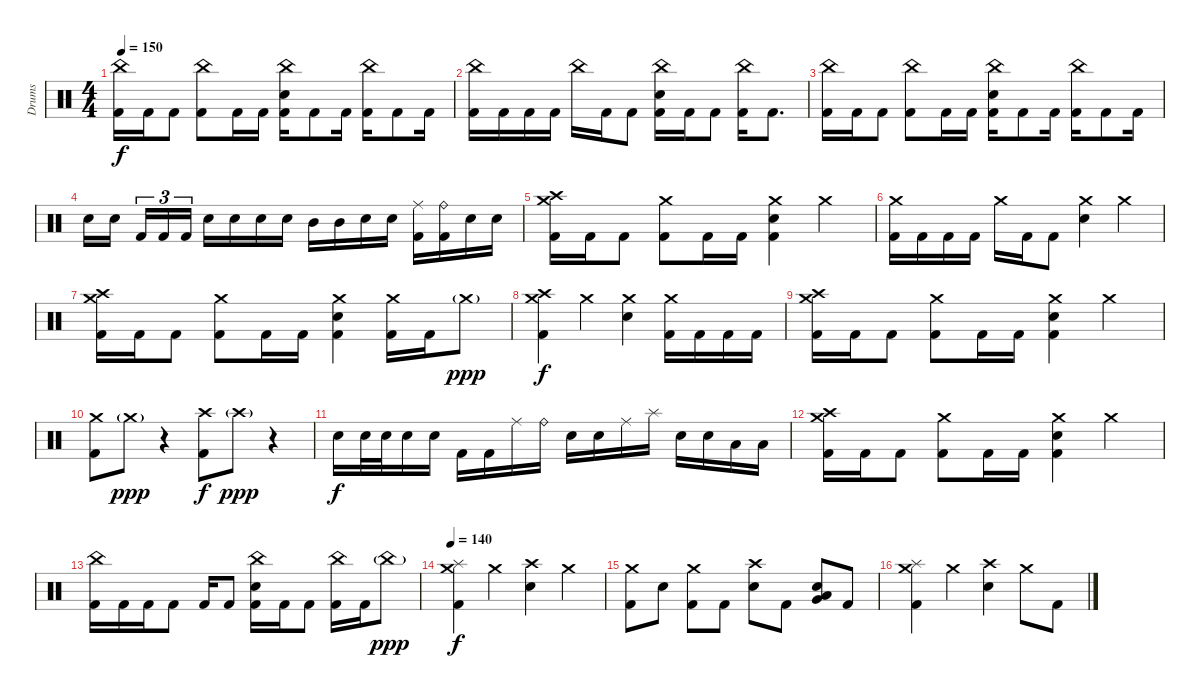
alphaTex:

\track ("Drums" "Drums") {instrument percussion}
\staff {score}
\articulation defaults
\ts (4 4)
\tempo 150
\clef neutral
\ks c
("China (hit)" "Kick (hit) 2").16{dy f} "Kick (hit) 2".16 "Kick (hit) 2".8 ("China (hit)" "Kick (hit) 2").8 "Kick (hit) 2".16 "Kick (hit) 2".16 ("China (hit)" "Electric Snare (hit)" "Kick (hit) 2").16 "Kick (hit) 2".8 "Kick (hit) 2".16 ("China (hit)" "Kick (hit) 2").16 "Kick (hit) 2".8 "Kick (hit) 2".16 |
("China (hit)" "Kick (hit) 2").16 "Kick (hit) 2".16 "Kick (hit) 2".16 "Kick (hit) 2".16 "China (hit)".16 "Kick (hit) 2".16 "Kick (hit) 2".8 ("China (hit)" "Electric Snare (hit)" "Kick (hit) 2").16 "Kick (hit) 2".16 "Kick (hit) 2".8 ("China (hit)" "Kick (hit) 2").16 "Kick (hit) 2".8{d} |
("China (hit)" "Kick (hit) 2").16 "Kick (hit) 2".16 "Kick (hit) 2".8 ("China (hit)" "Kick (hit) 2").8 "Kick (hit) 2".16 "Kick (hit) 2".16 ("China (hit)" "Electric Snare (hit)" "Kick (hit) 2").16 "Kick (hit) 2".8 "Kick (hit) 2".16 ("China (hit)" "Kick (hit) 2").16 "Kick (hit) 2".8 "Kick (hit) 2".16 |
"Electric Snare (hit)".16 "Electric Snare (hit)".16{beam splitsecondary} "Kick (hit) 2".16{tu (3 2)} "Kick (hit) 2".16{tu (3 2)} "Kick (hit) 2".16{tu (3 2)} "Electric Snare (hit)".16 "Electric Snare (hit)".16 "Electric Snare (hit)".16 "Electric Snare (hit)".16 "Mid Tom (hit)".16 "Mid Tom (hit)".16 "Electric Snare (hit)".16 "Electric Snare (hit)".16 ("Ride (middle)" "Kick (hit) 2").16 ("Ride (bell)" "Kick (hit) 2").16 "Electric Snare (hit)".16 "Electric Snare (hit)".16 |
("Crash medium (hit)" "Crash high (hit)" "Kick (hit) 2").16 "Kick (hit) 2".16 "Kick (hit) 2".8 ("Crash medium (hit)" "Kick (hit) 2").8 "Kick (hit) 2".16 "Kick (hit) 2".16 ("Crash medium (hit)" "Electric Snare (hit)" "Kick (hit) 2").4 "Crash medium (hit)".4 |
("Crash medium (hit)" "Kick (hit) 2").16 "Kick (hit) 2".16 "Kick (hit) 2".16 "Kick (hit) 2".16 "Crash medium (hit)".16 "Kick (hit) 2".16 "Kick (hit) 2".8 ("Crash medium (hit)" "Electric Snare (hit)").4 "Crash medium (hit)".4 |
("Crash medium (hit)" "Crash high (hit)" "Kick (hit) 2").16 "Kick (hit) 2".16 "Kick (hit) 2".8 ("Crash medium (hit)" "Kick (hit) 2").8 "Kick (hit) 2".16 "Kick (hit) 2".16 ("Crash medium (hit)" "Electric Snare (hit)" "Kick (hit) 2").4 ("Crash medium (hit)" "Kick (hit) 2").16 "Kick (hit) 2".16 "Crash medium (hit)"{g}.8{dy ppp} |
("Crash medium (hit)" "Crash high (hit)" "Kick (hit) 2").4{dy f} "Crash medium (hit)".4 ("Crash medium (hit)" "Electric Snare (hit)").4 ("Crash medium (hit)" "Kick (hit) 2").16 "Kick (hit) 2".16 "Kick (hit) 2".16 "Kick (hit) 2".16 |
("Crash medium (hit)" "Crash high (hit)" "Kick (hit) 2").16 "Kick (hit) 2".16 "Kick (hit) 2".8 ("Crash medium (hit)" "Kick (hit) 2").8 "Kick (hit) 2".16 "Kick (hit) 2".16 ("Crash medium (hit)" "Electric Snare (hit)" "Kick (hit) 2").4 "Crash medium (hit)".4 |
("Crash medium (hit)" "Kick (hit) 2").8 "Crash medium (hit)"{g}.8{dy ppp volume 0} r.4 ("Crash high (hit)" "Kick (hit) 2").8{dy f volume 16} "Crash high (hit)"{g}.8{dy ppp volume 0} r.4 |
"Electric Snare (hit)".16{dy f volume 16} "Electric Snare (hit)".32 "Electric Snare (hit)".32 "Electric Snare (hit)".16 "Electric Snare (hit)".16 "Kick (hit) 2".16 "Kick (hit) 2".16 "Ride (middle)".16 "Ride (bell)".16 "Electric Snare (hit)".16 "Electric Snare (hit)".16 "Ride (middle)".16 "Splash (hit)".16 "Electric Snare (hit)".16 "Electric Snare (hit)".16 "Low Tom (hit)".16 "Low Tom (hit)".16 |
("Crash medium (hit)" "Crash high (hit)" "Kick (hit) 2").16 "Kick (hit) 2".16 "Kick (hit) 2".8 ("Crash medium (hit)" "Kick (hit) 2").8 "Kick (hit) 2".16 "Kick (hit) 2".16 ("Crash medium (hit)" "Electric Snare (hit)" "Kick (hit) 2").4 "Crash medium (hit)".4 |
("China (hit)" "Kick (hit) 2").16 "Kick (hit) 2".16 "Kick (hit) 2".16 "Kick (hit) 2".8 "Kick (hit) 2".16 "Kick (hit) 2".8 ("China (hit)" "Electric Snare (hit)" "Kick (hit) 2").16 "Kick (hit) 2".16 "Kick (hit) 2".8 ("China (hit)" "Kick (hit) 2").16 "Kick (hit) 2".16 "China (hit)"{g}.8{dy ppp volume 0} |
\tempo 140
("Crash medium (hit)" "Splash (hit)" "Kick (hit) 2").4{dy f volume 16} "Crash medium (hit)".4 ("Crash high (hit)" "Electric Snare (hit)").4 "Crash medium (hit)".4 |
("Crash medium (hit)" "Kick (hit) 2").8 "Electric Snare (hit)".8 ("Crash medium (hit)" "Kick (hit) 2").8 "Kick (hit) 2".8 ("Crash high (hit)" "Electric Snare (hit)").8 "Kick (hit) 2".8 ("Very Low Tom (hit)" "Low Tom (hit)" "Electric Snare (hit)").8 "Kick (hit) 2".8 |
("Crash medium (hit)" "Splash (hit)" "Kick (hit) 2").4 "Crash medium (hit)".4 ("Crash high (hit)" "Electric Snare (hit)").4 "Crash medium (hit)".8 "Kick (hit) 2".8
